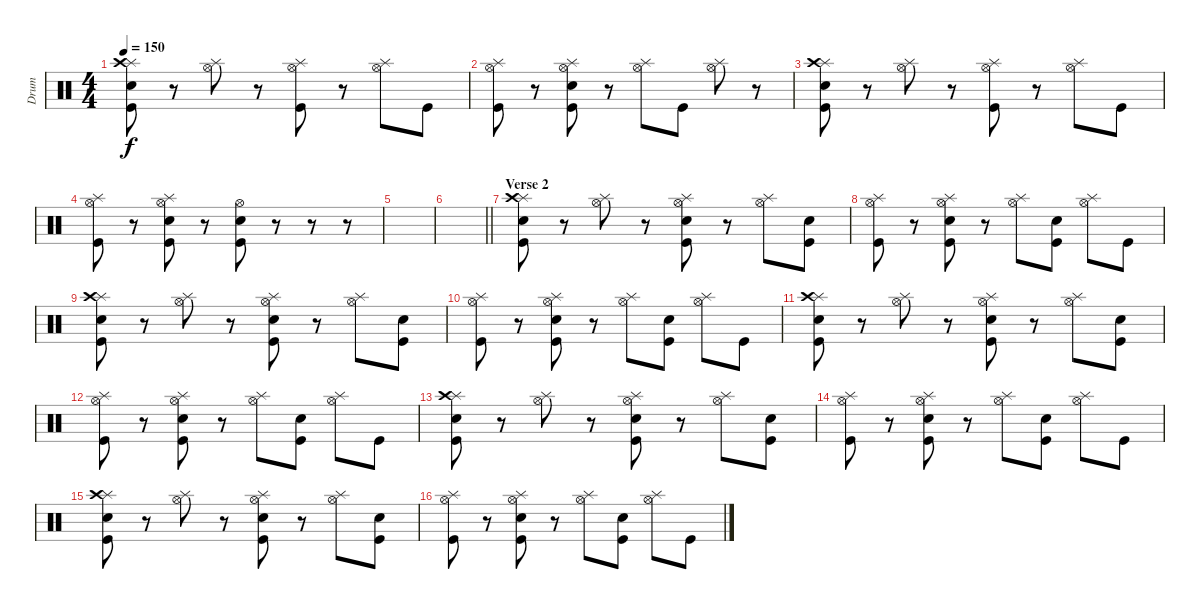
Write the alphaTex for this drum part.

\track ("Drum" "Drum") {instrument percussion}
\staff {score}
\articulation defaults
\ts (4 4)
\tempo 150
\clef neutral
\ks c
("Splash (hit)" "Crash high (hit)" "Snare (hit) 2" "Kick (hit)").8{dy f} r.8 ("Splash (hit)" "Hi-Hat (open)").8 r.8 ("Splash (hit)" "Hi-Hat (open)" "Kick (hit)").8 r.8 ("Splash (hit)" "Hi-Hat (open)").8 "Kick (hit)".8 |
("Splash (hit)" "Hi-Hat (open)" "Kick (hit)").8 r.8 ("Splash (hit)" "Hi-Hat (open)" "Snare (hit) 2" "Kick (hit)").8 r.8 ("Splash (hit)" "Hi-Hat (open)").8 "Kick (hit)".8 ("Splash (hit)" "Hi-Hat (open)").8 r.8 |
("Splash (hit)" "Crash high (hit)" "Snare (hit) 2" "Kick (hit)").8 r.8 ("Splash (hit)" "Hi-Hat (open)").8 r.8 ("Splash (hit)" "Hi-Hat (open)" "Kick (hit)").8 r.8 ("Splash (hit)" "Hi-Hat (open)").8 "Kick (hit)".8 |
("Splash (hit)" "Hi-Hat (open)" "Kick (hit)").8 r.8 ("Splash (hit)" "Hi-Hat (open)" "Snare (hit) 2" "Kick (hit)").8 r.8 ("Hi-Hat (open)" "Snare (hit) 2" "Kick (hit)").8 r.8 r.8 r.8 |
|
\barLineRight lightlight
|
\section ("" "Verse 2")
("Splash (hit)" "Crash high (hit)" "Snare (hit) 2" "Kick (hit)").8 r.8 ("Splash (hit)" "Hi-Hat (open)").8 r.8 ("Splash (hit)" "Hi-Hat (open)" "Snare (hit) 2" "Kick (hit)").8 r.8 ("Splash (hit)" "Hi-Hat (open)").8 ("Snare (hit) 2" "Kick (hit)").8 |
("Splash (hit)" "Hi-Hat (open)" "Kick (hit)").8 r.8 ("Splash (hit)" "Hi-Hat (open)" "Snare (hit) 2" "Kick (hit)").8 r.8 ("Splash (hit)" "Hi-Hat (open)").8 ("Snare (hit) 2" "Kick (hit)").8 ("Splash (hit)" "Hi-Hat (open)").8 "Kick (hit)".8 |
("Splash (hit)" "Crash high (hit)" "Snare (hit) 2" "Kick (hit)").8 r.8 ("Splash (hit)" "Hi-Hat (open)").8 r.8 ("Splash (hit)" "Hi-Hat (open)" "Snare (hit) 2" "Kick (hit)").8 r.8 ("Splash (hit)" "Hi-Hat (open)").8 ("Snare (hit) 2" "Kick (hit)").8 |
("Splash (hit)" "Hi-Hat (open)" "Kick (hit)").8 r.8 ("Splash (hit)" "Hi-Hat (open)" "Snare (hit) 2" "Kick (hit)").8 r.8 ("Splash (hit)" "Hi-Hat (open)").8 ("Snare (hit) 2" "Kick (hit)").8 ("Splash (hit)" "Hi-Hat (open)").8 "Kick (hit)".8 |
("Splash (hit)" "Crash high (hit)" "Snare (hit) 2" "Kick (hit)").8 r.8 ("Splash (hit)" "Hi-Hat (open)").8 r.8 ("Splash (hit)" "Hi-Hat (open)" "Snare (hit) 2" "Kick (hit)").8 r.8 ("Splash (hit)" "Hi-Hat (open)").8 ("Snare (hit) 2" "Kick (hit)").8 |
("Splash (hit)" "Hi-Hat (open)" "Kick (hit)").8 r.8 ("Splash (hit)" "Hi-Hat (open)" "Snare (hit) 2" "Kick (hit)").8 r.8 ("Splash (hit)" "Hi-Hat (open)").8 ("Snare (hit) 2" "Kick (hit)").8 ("Splash (hit)" "Hi-Hat (open)").8 "Kick (hit)".8 |
("Splash (hit)" "Crash high (hit)" "Snare (hit) 2" "Kick (hit)").8 r.8 ("Splash (hit)" "Hi-Hat (open)").8 r.8 ("Splash (hit)" "Hi-Hat (open)" "Snare (hit) 2" "Kick (hit)").8 r.8 ("Splash (hit)" "Hi-Hat (open)").8 ("Snare (hit) 2" "Kick (hit)").8 |
("Splash (hit)" "Hi-Hat (open)" "Kick (hit)").8 r.8 ("Splash (hit)" "Hi-Hat (open)" "Snare (hit) 2" "Kick (hit)").8 r.8 ("Splash (hit)" "Hi-Hat (open)").8 ("Snare (hit) 2" "Kick (hit)").8 ("Splash (hit)" "Hi-Hat (open)").8 "Kick (hit)".8 |
("Splash (hit)" "Crash high (hit)" "Snare (hit) 2" "Kick (hit)").8 r.8 ("Splash (hit)" "Hi-Hat (open)").8 r.8 ("Splash (hit)" "Hi-Hat (open)" "Snare (hit) 2" "Kick (hit)").8 r.8 ("Splash (hit)" "Hi-Hat (open)").8 ("Snare (hit) 2" "Kick (hit)").8 |
("Splash (hit)" "Hi-Hat (open)" "Kick (hit)").8 r.8 ("Splash (hit)" "Hi-Hat (open)" "Snare (hit) 2" "Kick (hit)").8 r.8 ("Splash (hit)" "Hi-Hat (open)").8 ("Snare (hit) 2" "Kick (hit)").8 ("Splash (hit)" "Hi-Hat (open)").8 "Kick (hit)".8
